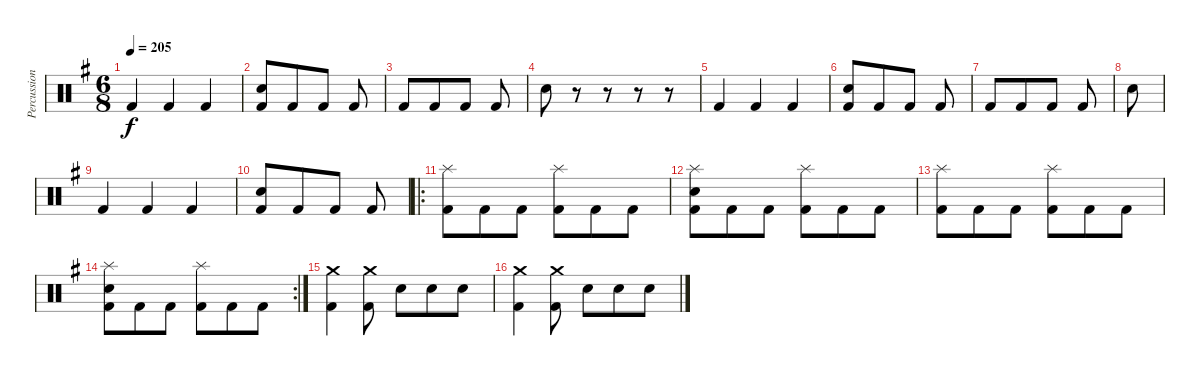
\track ("Percussion" "Percussion") {instrument percussion}
\staff {score}
\articulation defaults
\ts (6 8)
\tempo 205
\clef neutral
\ks g "Kick (hit) 2".4{dy f} "Kick (hit) 2".4 "Kick (hit) 2".4
|
("Electric Snare (hit)" "Kick (hit) 2").8 "Kick (hit) 2".8 "Kick (hit) 2".8 "Kick (hit) 2".8 |
"Kick (hit) 2".8 "Kick (hit) 2".8 "Kick (hit) 2".8 "Kick (hit) 2".8 |
"Electric Snare (hit)".8 r.8 r.8 r.8 r.8 |
"Kick (hit) 2".4 "Kick (hit) 2".4 "Kick (hit) 2".4 |
("Electric Snare (hit)" "Kick (hit) 2").8 "Kick (hit) 2".8 "Kick (hit) 2".8 "Kick (hit) 2".8 |
"Kick (hit) 2".8 "Kick (hit) 2".8 "Kick (hit) 2".8 "Kick (hit) 2".8 |
"Electric Snare (hit)".8 |
"Kick (hit) 2".4 "Kick (hit) 2".4 "Kick (hit) 2".4 |
("Electric Snare (hit)" "Kick (hit) 2").8 "Kick (hit) 2".8 "Kick (hit) 2".8 "Kick (hit) 2".8 |
\ro
("Splash (hit)" "Kick (hit) 2").8 "Kick (hit) 2".8 "Kick (hit) 2".8 ("Splash (hit)" "Kick (hit) 2").8 "Kick (hit) 2".8 "Kick (hit) 2".8 |
("Electric Snare (hit)" "Splash (hit)" "Kick (hit) 2").8 "Kick (hit) 2".8 "Kick (hit) 2".8 ("Splash (hit)" "Kick (hit) 2").8 "Kick (hit) 2".8 "Kick (hit) 2".8 |
("Splash (hit)" "Kick (hit) 2").8 "Kick (hit) 2".8 "Kick (hit) 2".8 ("Splash (hit)" "Kick (hit) 2").8 "Kick (hit) 2".8 "Kick (hit) 2".8 |
\rc 2
("Electric Snare (hit)" "Splash (hit)" "Kick (hit) 2").8 "Kick (hit) 2".8 "Kick (hit) 2".8 ("Splash (hit)" "Kick (hit) 2").8 "Kick (hit) 2".8 "Kick (hit) 2".8 |
("Crash medium (hit)" "Kick (hit) 2").4 ("Crash medium (hit)" "Kick (hit) 2").8 "Electric Snare (hit)".8 "Electric Snare (hit)".8 "Electric Snare (hit)".8 |
("Crash medium (hit)" "Kick (hit) 2").4 ("Crash medium (hit)" "Kick (hit) 2").8 "Electric Snare (hit)".8 "Electric Snare (hit)".8 "Electric Snare (hit)".8
